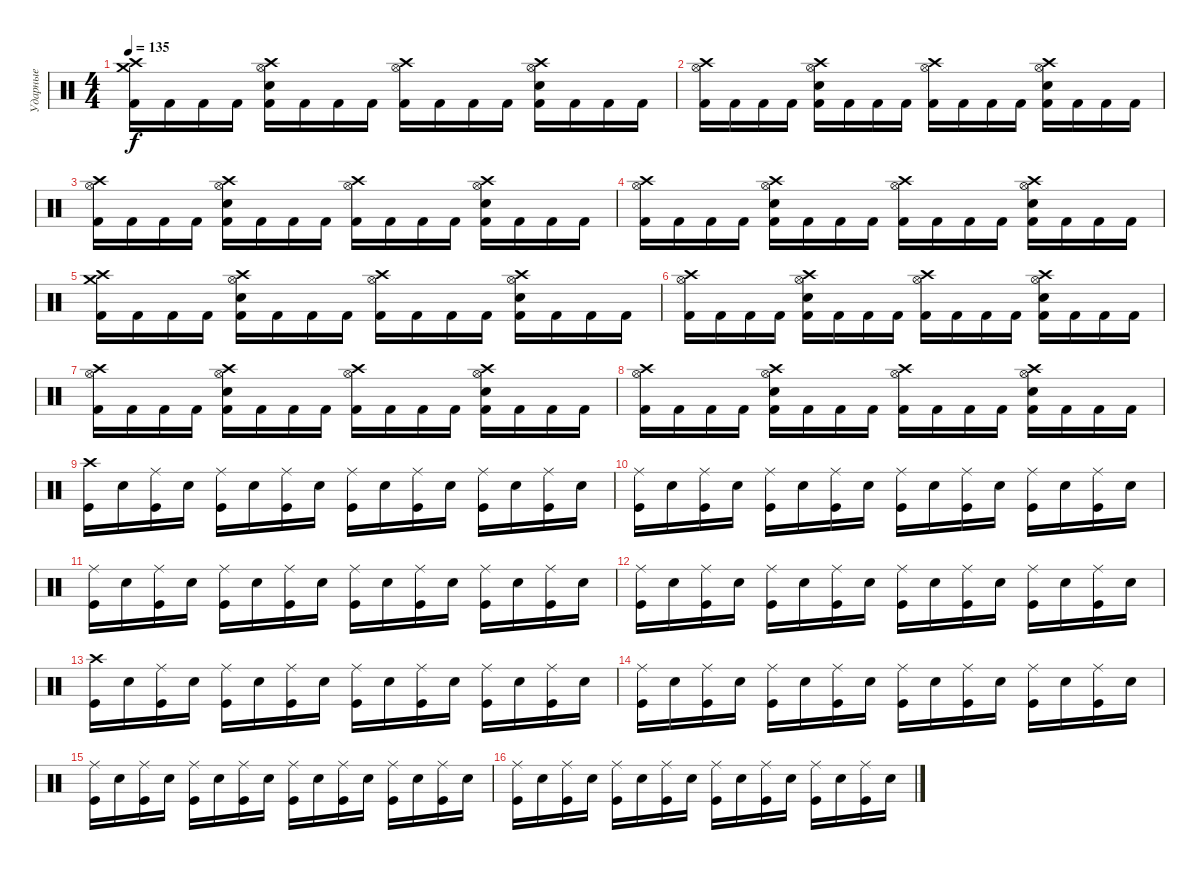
\track ("Ударные" "Ударные") {instrument percussion}
\staff {score}
\articulation defaults
\ts (4 4)
\tempo 135
\clef neutral
\ks c
("Crash medium (hit)" "Crash high (hit)" "Kick (hit) 2").16{dy f} "Kick (hit) 2".16 "Kick (hit) 2".16 "Kick (hit) 2".16 ("Crash high (hit)" "Hi-Hat (open)" "Electric Snare (hit)" "Kick (hit) 2").16 "Kick (hit) 2".16 "Kick (hit) 2".16 "Kick (hit) 2".16 ("Crash high (hit)" "Hi-Hat (open)" "Kick (hit) 2").16 "Kick (hit) 2".16 "Kick (hit) 2".16 "Kick (hit) 2".16 ("Crash high (hit)" "Hi-Hat (open)" "Electric Snare (hit)" "Kick (hit) 2").16 "Kick (hit) 2".16 "Kick (hit) 2".16 "Kick (hit) 2".16 |
("Crash high (hit)" "Hi-Hat (open)" "Kick (hit) 2").16 "Kick (hit) 2".16 "Kick (hit) 2".16 "Kick (hit) 2".16 ("Crash high (hit)" "Hi-Hat (open)" "Electric Snare (hit)" "Kick (hit) 2").16 "Kick (hit) 2".16 "Kick (hit) 2".16 "Kick (hit) 2".16 ("Crash high (hit)" "Hi-Hat (open)" "Kick (hit) 2").16 "Kick (hit) 2".16 "Kick (hit) 2".16 "Kick (hit) 2".16 ("Crash high (hit)" "Hi-Hat (open)" "Electric Snare (hit)" "Kick (hit) 2").16 "Kick (hit) 2".16 "Kick (hit) 2".16 "Kick (hit) 2".16 |
("Crash high (hit)" "Hi-Hat (open)" "Kick (hit) 2").16 "Kick (hit) 2".16 "Kick (hit) 2".16 "Kick (hit) 2".16 ("Crash high (hit)" "Hi-Hat (open)" "Electric Snare (hit)" "Kick (hit) 2").16 "Kick (hit) 2".16 "Kick (hit) 2".16 "Kick (hit) 2".16 ("Crash high (hit)" "Hi-Hat (open)" "Kick (hit) 2").16 "Kick (hit) 2".16 "Kick (hit) 2".16 "Kick (hit) 2".16 ("Crash high (hit)" "Hi-Hat (open)" "Electric Snare (hit)" "Kick (hit) 2").16 "Kick (hit) 2".16 "Kick (hit) 2".16 "Kick (hit) 2".16 |
("Crash high (hit)" "Hi-Hat (open)" "Kick (hit) 2").16 "Kick (hit) 2".16 "Kick (hit) 2".16 "Kick (hit) 2".16 ("Crash high (hit)" "Hi-Hat (open)" "Electric Snare (hit)" "Kick (hit) 2").16 "Kick (hit) 2".16 "Kick (hit) 2".16 "Kick (hit) 2".16 ("Crash high (hit)" "Hi-Hat (open)" "Kick (hit) 2").16 "Kick (hit) 2".16 "Kick (hit) 2".16 "Kick (hit) 2".16 ("Crash high (hit)" "Hi-Hat (open)" "Electric Snare (hit)" "Kick (hit) 2").16 "Kick (hit) 2".16 "Kick (hit) 2".16 "Kick (hit) 2".16 |
("Crash medium (hit)" "Crash high (hit)" "Kick (hit) 2").16 "Kick (hit) 2".16 "Kick (hit) 2".16 "Kick (hit) 2".16 ("Crash high (hit)" "Hi-Hat (open)" "Electric Snare (hit)" "Kick (hit) 2").16 "Kick (hit) 2".16 "Kick (hit) 2".16 "Kick (hit) 2".16 ("Crash high (hit)" "Hi-Hat (open)" "Kick (hit) 2").16 "Kick (hit) 2".16 "Kick (hit) 2".16 "Kick (hit) 2".16 ("Crash high (hit)" "Hi-Hat (open)" "Electric Snare (hit)" "Kick (hit) 2").16 "Kick (hit) 2".16 "Kick (hit) 2".16 "Kick (hit) 2".16 |
("Crash high (hit)" "Hi-Hat (open)" "Kick (hit) 2").16 "Kick (hit) 2".16 "Kick (hit) 2".16 "Kick (hit) 2".16 ("Crash high (hit)" "Hi-Hat (open)" "Electric Snare (hit)" "Kick (hit) 2").16 "Kick (hit) 2".16 "Kick (hit) 2".16 "Kick (hit) 2".16 ("Crash high (hit)" "Hi-Hat (open)" "Kick (hit) 2").16 "Kick (hit) 2".16 "Kick (hit) 2".16 "Kick (hit) 2".16 ("Crash high (hit)" "Hi-Hat (open)" "Electric Snare (hit)" "Kick (hit) 2").16 "Kick (hit) 2".16 "Kick (hit) 2".16 "Kick (hit) 2".16 |
("Crash high (hit)" "Hi-Hat (open)" "Kick (hit) 2").16 "Kick (hit) 2".16 "Kick (hit) 2".16 "Kick (hit) 2".16 ("Crash high (hit)" "Hi-Hat (open)" "Electric Snare (hit)" "Kick (hit) 2").16 "Kick (hit) 2".16 "Kick (hit) 2".16 "Kick (hit) 2".16 ("Crash high (hit)" "Hi-Hat (open)" "Kick (hit) 2").16 "Kick (hit) 2".16 "Kick (hit) 2".16 "Kick (hit) 2".16 ("Crash high (hit)" "Hi-Hat (open)" "Electric Snare (hit)" "Kick (hit) 2").16 "Kick (hit) 2".16 "Kick (hit) 2".16 "Kick (hit) 2".16 |
("Crash high (hit)" "Hi-Hat (open)" "Kick (hit) 2").16 "Kick (hit) 2".16 "Kick (hit) 2".16 "Kick (hit) 2".16 ("Crash high (hit)" "Hi-Hat (open)" "Electric Snare (hit)" "Kick (hit) 2").16 "Kick (hit) 2".16 "Kick (hit) 2".16 "Kick (hit) 2".16 ("Crash high (hit)" "Hi-Hat (open)" "Kick (hit) 2").16 "Kick (hit) 2".16 "Kick (hit) 2".16 "Kick (hit) 2".16 ("Crash high (hit)" "Hi-Hat (open)" "Electric Snare (hit)" "Kick (hit) 2").16 "Kick (hit) 2".16 "Kick (hit) 2".16 "Kick (hit) 2".16 |
("Crash high (hit)" "Kick (hit)").16 "Electric Snare (hit)".16 ("Ride (middle)" "Kick (hit)").16 "Electric Snare (hit)".16 ("Ride (middle)" "Kick (hit)").16 "Electric Snare (hit)".16 ("Ride (middle)" "Kick (hit)").16 "Electric Snare (hit)".16 ("Ride (middle)" "Kick (hit)").16 "Electric Snare (hit)".16 ("Ride (middle)" "Kick (hit)").16 "Electric Snare (hit)".16 ("Ride (middle)" "Kick (hit)").16 "Electric Snare (hit)".16 ("Ride (middle)" "Kick (hit)").16 "Electric Snare (hit)".16 |
("Ride (middle)" "Kick (hit)").16 "Electric Snare (hit)".16 ("Ride (middle)" "Kick (hit)").16 "Electric Snare (hit)".16 ("Ride (middle)" "Kick (hit)").16 "Electric Snare (hit)".16 ("Ride (middle)" "Kick (hit)").16 "Electric Snare (hit)".16 ("Ride (middle)" "Kick (hit)").16 "Electric Snare (hit)".16 ("Ride (middle)" "Kick (hit)").16 "Electric Snare (hit)".16 ("Ride (middle)" "Kick (hit)").16 "Electric Snare (hit)".16 ("Ride (middle)" "Kick (hit)").16 "Electric Snare (hit)".16 |
("Ride (middle)" "Kick (hit)").16 "Electric Snare (hit)".16 ("Ride (middle)" "Kick (hit)").16 "Electric Snare (hit)".16 ("Ride (middle)" "Kick (hit)").16 "Electric Snare (hit)".16 ("Ride (middle)" "Kick (hit)").16 "Electric Snare (hit)".16 ("Ride (middle)" "Kick (hit)").16 "Electric Snare (hit)".16 ("Ride (middle)" "Kick (hit)").16 "Electric Snare (hit)".16 ("Ride (middle)" "Kick (hit)").16 "Electric Snare (hit)".16 ("Ride (middle)" "Kick (hit)").16 "Electric Snare (hit)".16 |
("Ride (middle)" "Kick (hit)").16 "Electric Snare (hit)".16 ("Ride (middle)" "Kick (hit)").16 "Electric Snare (hit)".16 ("Ride (middle)" "Kick (hit)").16 "Electric Snare (hit)".16 ("Ride (middle)" "Kick (hit)").16 "Electric Snare (hit)".16 ("Ride (middle)" "Kick (hit)").16 "Electric Snare (hit)".16 ("Ride (middle)" "Kick (hit)").16 "Electric Snare (hit)".16 ("Ride (middle)" "Kick (hit)").16 "Electric Snare (hit)".16 ("Ride (middle)" "Kick (hit)").16 "Electric Snare (hit)".16 |
("Crash high (hit)" "Kick (hit)").16 "Electric Snare (hit)".16 ("Ride (middle)" "Kick (hit)").16 "Electric Snare (hit)".16 ("Ride (middle)" "Kick (hit)").16 "Electric Snare (hit)".16 ("Ride (middle)" "Kick (hit)").16 "Electric Snare (hit)".16 ("Ride (middle)" "Kick (hit)").16 "Electric Snare (hit)".16 ("Ride (middle)" "Kick (hit)").16 "Electric Snare (hit)".16 ("Ride (middle)" "Kick (hit)").16 "Electric Snare (hit)".16 ("Ride (middle)" "Kick (hit)").16 "Electric Snare (hit)".16 |
("Ride (middle)" "Kick (hit)").16 "Electric Snare (hit)".16 ("Ride (middle)" "Kick (hit)").16 "Electric Snare (hit)".16 ("Ride (middle)" "Kick (hit)").16 "Electric Snare (hit)".16 ("Ride (middle)" "Kick (hit)").16 "Electric Snare (hit)".16 ("Ride (middle)" "Kick (hit)").16 "Electric Snare (hit)".16 ("Ride (middle)" "Kick (hit)").16 "Electric Snare (hit)".16 ("Ride (middle)" "Kick (hit)").16 "Electric Snare (hit)".16 ("Ride (middle)" "Kick (hit)").16 "Electric Snare (hit)".16 |
("Ride (middle)" "Kick (hit)").16 "Electric Snare (hit)".16 ("Ride (middle)" "Kick (hit)").16 "Electric Snare (hit)".16 ("Ride (middle)" "Kick (hit)").16 "Electric Snare (hit)".16 ("Ride (middle)" "Kick (hit)").16 "Electric Snare (hit)".16 ("Ride (middle)" "Kick (hit)").16 "Electric Snare (hit)".16 ("Ride (middle)" "Kick (hit)").16 "Electric Snare (hit)".16 ("Ride (middle)" "Kick (hit)").16 "Electric Snare (hit)".16 ("Ride (middle)" "Kick (hit)").16 "Electric Snare (hit)".16 |
("Ride (middle)" "Kick (hit)").16 "Electric Snare (hit)".16 ("Ride (middle)" "Kick (hit)").16 "Electric Snare (hit)".16 ("Ride (middle)" "Kick (hit)").16 "Electric Snare (hit)".16 ("Ride (middle)" "Kick (hit)").16 "Electric Snare (hit)".16 ("Ride (middle)" "Kick (hit)").16 "Electric Snare (hit)".16 ("Ride (middle)" "Kick (hit)").16 "Electric Snare (hit)".16 ("Ride (middle)" "Kick (hit)").16 "Electric Snare (hit)".16 ("Ride (middle)" "Kick (hit)").16 "Electric Snare (hit)".16
